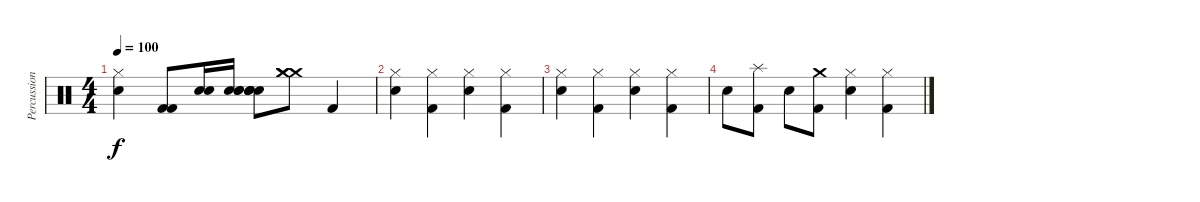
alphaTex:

\track ("Percussion" "Percussion") {instrument percussion}
\staff {score}
\articulation defaults
\ts (4 4)
\tempo 100
\clef neutral
\ks c
("Electric Snare (hit)" "Hi-Hat (closed)").4{dy f} ("Kick (hit) 2" "Kick (hit) 2").8 ("Electric Snare (hit)" "Electric Snare (hit)").16 ("Electric Snare (hit)" "Electric Snare (hit)" "Electric Snare (hit)").16 ("Electric Snare (hit)" "Electric Snare (hit)" "Electric Snare (hit)" "Electric Snare (hit)").8 ("Crash medium (hit)" "Crash medium (hit)" "Crash medium (hit)").8 "Kick (hit) 2".4 |
("Hi-Hat (closed)" "Electric Snare (hit)").4 ("Hi-Hat (closed)" "Kick (hit) 2").4 ("Hi-Hat (closed)" "Electric Snare (hit)").4 ("Hi-Hat (closed)" "Kick (hit) 2").4 |
("Hi-Hat (closed)" "Electric Snare (hit)").4 ("Hi-Hat (closed)" "Kick (hit) 2").4 ("Hi-Hat (closed)" "Electric Snare (hit)").4 ("Hi-Hat (closed)" "Kick (hit) 2").4 |
"Electric Snare (hit)".8 ("Splash (hit)" "Kick (hit) 2").8 "Electric Snare (hit)".8 ("Crash medium (hit)" "Kick (hit) 2").8 ("Hi-Hat (closed)" "Electric Snare (hit)").4 ("Hi-Hat (closed)" "Kick (hit) 2").4
